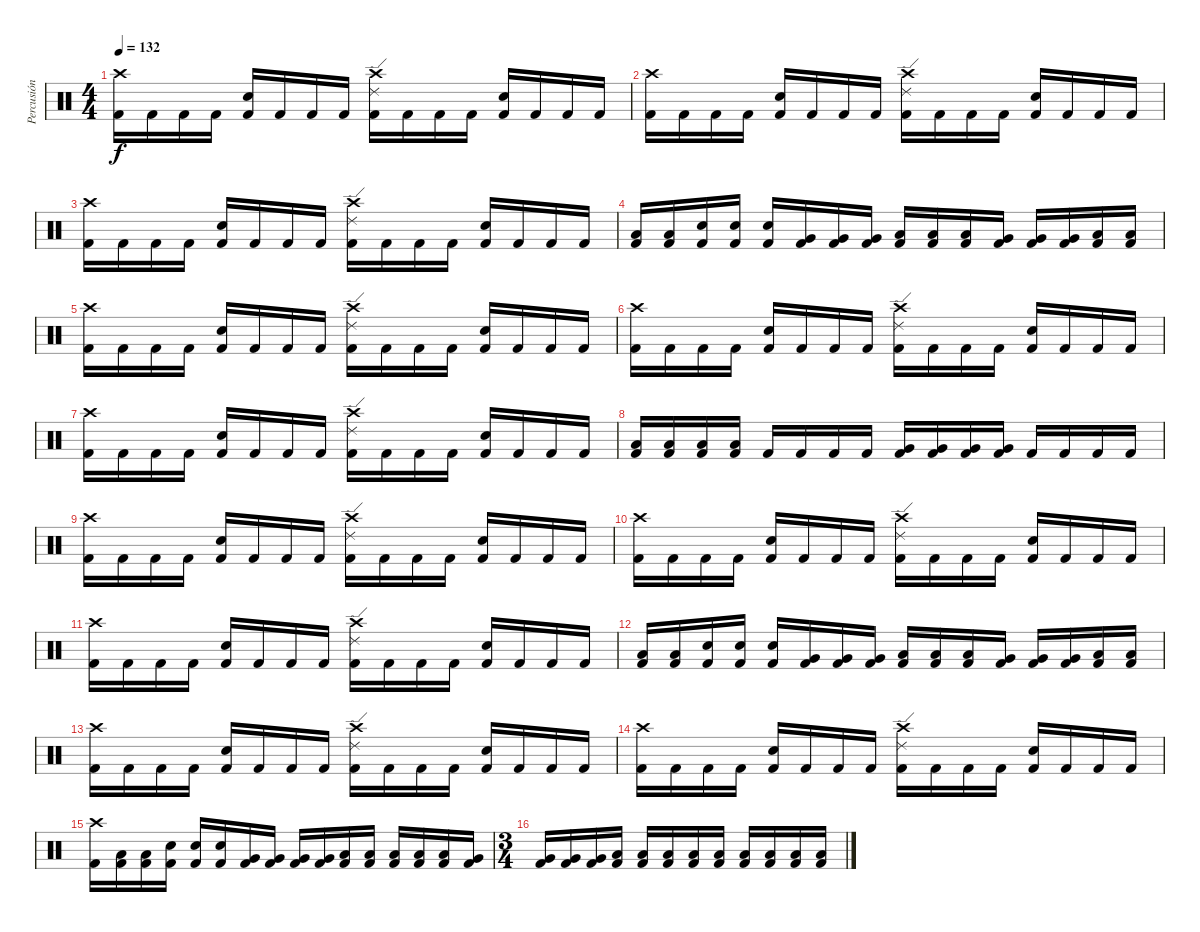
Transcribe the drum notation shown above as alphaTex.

\track ("Percusión" "Percusión") {instrument percussion}
\staff {score}
\articulation defaults
\ts (4 4)
\tempo 132
\clef neutral
\ks c
("Crash high (hit)" "Kick (hit) 2").16{dy f} "Kick (hit) 2".16 "Kick (hit) 2".16 "Kick (hit) 2".16 ("Snare (hit) 2" "Kick (hit) 2").16 "Kick (hit) 2".16 "Kick (hit) 2".16 "Kick (hit) 2".16 ("Ride (edge) 2" "Crash high (hit)" "Kick (hit) 2").16 "Kick (hit) 2".16 "Kick (hit) 2".16 "Kick (hit) 2".16 ("Snare (hit) 2" "Kick (hit) 2").16 "Kick (hit) 2".16 "Kick (hit) 2".16 "Kick (hit) 2".16 |
("Crash high (hit)" "Kick (hit) 2").16 "Kick (hit) 2".16 "Kick (hit) 2".16 "Kick (hit) 2".16 ("Snare (hit) 2" "Kick (hit) 2").16 "Kick (hit) 2".16 "Kick (hit) 2".16 "Kick (hit) 2".16 ("Ride (edge) 2" "Crash high (hit)" "Kick (hit) 2").16 "Kick (hit) 2".16 "Kick (hit) 2".16 "Kick (hit) 2".16 ("Snare (hit) 2" "Kick (hit) 2").16 "Kick (hit) 2".16 "Kick (hit) 2".16 "Kick (hit) 2".16 |
("Crash high (hit)" "Kick (hit) 2").16 "Kick (hit) 2".16 "Kick (hit) 2".16 "Kick (hit) 2".16 ("Snare (hit) 2" "Kick (hit) 2").16 "Kick (hit) 2".16 "Kick (hit) 2".16 "Kick (hit) 2".16 ("Ride (edge) 2" "Crash high (hit)" "Kick (hit) 2").16 "Kick (hit) 2".16 "Kick (hit) 2".16 "Kick (hit) 2".16 ("Snare (hit) 2" "Kick (hit) 2").16 "Kick (hit) 2".16 "Kick (hit) 2".16 "Kick (hit) 2".16 |
("Low Floor Tom (hit)" "Kick (hit) 2").16 ("Low Floor Tom (hit)" "Kick (hit) 2").16 ("Snare (hit) 2" "Kick (hit) 2").16 ("Snare (hit) 2" "Kick (hit) 2").16 ("Snare (hit) 2" "Kick (hit) 2").16 ("Very Low Tom (hit)" "Kick (hit) 2").16 ("Very Low Tom (hit)" "Kick (hit) 2").16 ("Very Low Tom (hit)" "Kick (hit) 2").16 ("Low Tom (hit)" "Kick (hit) 2").16 ("Low Tom (hit)" "Kick (hit) 2").16 ("Low Tom (hit)" "Kick (hit) 2").16 ("Very Low Tom (hit)" "Kick (hit) 2").16 ("Very Low Tom (hit)" "Kick (hit) 2").16 ("Very Low Tom (hit)" "Kick (hit) 2").16 ("Low Floor Tom (hit)" "Kick (hit) 2").16 ("Low Floor Tom (hit)" "Kick (hit) 2").16 |
("Crash high (hit)" "Kick (hit) 2").16 "Kick (hit) 2".16 "Kick (hit) 2".16 "Kick (hit) 2".16 ("Snare (hit) 2" "Kick (hit) 2").16 "Kick (hit) 2".16 "Kick (hit) 2".16 "Kick (hit) 2".16 ("Ride (edge) 2" "Crash high (hit)" "Kick (hit) 2").16 "Kick (hit) 2".16 "Kick (hit) 2".16 "Kick (hit) 2".16 ("Snare (hit) 2" "Kick (hit) 2").16 "Kick (hit) 2".16 "Kick (hit) 2".16 "Kick (hit) 2".16 |
("Crash high (hit)" "Kick (hit) 2").16 "Kick (hit) 2".16 "Kick (hit) 2".16 "Kick (hit) 2".16 ("Snare (hit) 2" "Kick (hit) 2").16 "Kick (hit) 2".16 "Kick (hit) 2".16 "Kick (hit) 2".16 ("Ride (edge) 2" "Crash high (hit)" "Kick (hit) 2").16 "Kick (hit) 2".16 "Kick (hit) 2".16 "Kick (hit) 2".16 ("Snare (hit) 2" "Kick (hit) 2").16 "Kick (hit) 2".16 "Kick (hit) 2".16 "Kick (hit) 2".16 |
("Crash high (hit)" "Kick (hit) 2").16 "Kick (hit) 2".16 "Kick (hit) 2".16 "Kick (hit) 2".16 ("Snare (hit) 2" "Kick (hit) 2").16 "Kick (hit) 2".16 "Kick (hit) 2".16 "Kick (hit) 2".16 ("Ride (edge) 2" "Crash high (hit)" "Kick (hit) 2").16 "Kick (hit) 2".16 "Kick (hit) 2".16 "Kick (hit) 2".16 ("Snare (hit) 2" "Kick (hit) 2").16 "Kick (hit) 2".16 "Kick (hit) 2".16 "Kick (hit) 2".16 |
("Low Tom (hit)" "Kick (hit) 2").16 ("Low Tom (hit)" "Kick (hit) 2").16 ("Low Tom (hit)" "Kick (hit) 2").16 ("Low Tom (hit)" "Kick (hit) 2").16 "Kick (hit) 2".16 "Kick (hit) 2".16 "Kick (hit) 2".16 "Kick (hit) 2".16 ("Very Low Tom (hit)" "Kick (hit) 2").16 ("Very Low Tom (hit)" "Kick (hit) 2").16 ("Very Low Tom (hit)" "Kick (hit) 2").16 ("Very Low Tom (hit)" "Kick (hit) 2").16 "Kick (hit) 2".16 "Kick (hit) 2".16 "Kick (hit) 2".16 "Kick (hit) 2".16 |
("Crash high (hit)" "Kick (hit) 2").16 "Kick (hit) 2".16 "Kick (hit) 2".16 "Kick (hit) 2".16 ("Snare (hit) 2" "Kick (hit) 2").16 "Kick (hit) 2".16 "Kick (hit) 2".16 "Kick (hit) 2".16 ("Ride (edge) 2" "Crash high (hit)" "Kick (hit) 2").16 "Kick (hit) 2".16 "Kick (hit) 2".16 "Kick (hit) 2".16 ("Snare (hit) 2" "Kick (hit) 2").16 "Kick (hit) 2".16 "Kick (hit) 2".16 "Kick (hit) 2".16 |
("Crash high (hit)" "Kick (hit) 2").16 "Kick (hit) 2".16 "Kick (hit) 2".16 "Kick (hit) 2".16 ("Snare (hit) 2" "Kick (hit) 2").16 "Kick (hit) 2".16 "Kick (hit) 2".16 "Kick (hit) 2".16 ("Ride (edge) 2" "Crash high (hit)" "Kick (hit) 2").16 "Kick (hit) 2".16 "Kick (hit) 2".16 "Kick (hit) 2".16 ("Snare (hit) 2" "Kick (hit) 2").16 "Kick (hit) 2".16 "Kick (hit) 2".16 "Kick (hit) 2".16 |
("Crash high (hit)" "Kick (hit) 2").16 "Kick (hit) 2".16 "Kick (hit) 2".16 "Kick (hit) 2".16 ("Snare (hit) 2" "Kick (hit) 2").16 "Kick (hit) 2".16 "Kick (hit) 2".16 "Kick (hit) 2".16 ("Ride (edge) 2" "Crash high (hit)" "Kick (hit) 2").16 "Kick (hit) 2".16 "Kick (hit) 2".16 "Kick (hit) 2".16 ("Snare (hit) 2" "Kick (hit) 2").16 "Kick (hit) 2".16 "Kick (hit) 2".16 "Kick (hit) 2".16 |
("Low Floor Tom (hit)" "Kick (hit) 2").16 ("Low Floor Tom (hit)" "Kick (hit) 2").16 ("Snare (hit) 2" "Kick (hit) 2").16 ("Snare (hit) 2" "Kick (hit) 2").16 ("Snare (hit) 2" "Kick (hit) 2").16 ("Very Low Tom (hit)" "Kick (hit) 2").16 ("Very Low Tom (hit)" "Kick (hit) 2").16 ("Very Low Tom (hit)" "Kick (hit) 2").16 ("Low Tom (hit)" "Kick (hit) 2").16 ("Low Tom (hit)" "Kick (hit) 2").16 ("Low Tom (hit)" "Kick (hit) 2").16 ("Very Low Tom (hit)" "Kick (hit) 2").16 ("Very Low Tom (hit)" "Kick (hit) 2").16 ("Very Low Tom (hit)" "Kick (hit) 2").16 ("Low Floor Tom (hit)" "Kick (hit) 2").16 ("Low Floor Tom (hit)" "Kick (hit) 2").16 |
("Crash high (hit)" "Kick (hit) 2").16 "Kick (hit) 2".16 "Kick (hit) 2".16 "Kick (hit) 2".16 ("Snare (hit) 2" "Kick (hit) 2").16 "Kick (hit) 2".16 "Kick (hit) 2".16 "Kick (hit) 2".16 ("Ride (edge) 2" "Crash high (hit)" "Kick (hit) 2").16 "Kick (hit) 2".16 "Kick (hit) 2".16 "Kick (hit) 2".16 ("Snare (hit) 2" "Kick (hit) 2").16 "Kick (hit) 2".16 "Kick (hit) 2".16 "Kick (hit) 2".16 |
("Crash high (hit)" "Kick (hit) 2").16 "Kick (hit) 2".16 "Kick (hit) 2".16 "Kick (hit) 2".16 ("Snare (hit) 2" "Kick (hit) 2").16 "Kick (hit) 2".16 "Kick (hit) 2".16 "Kick (hit) 2".16 ("Ride (edge) 2" "Crash high (hit)" "Kick (hit) 2").16 "Kick (hit) 2".16 "Kick (hit) 2".16 "Kick (hit) 2".16 ("Snare (hit) 2" "Kick (hit) 2").16 "Kick (hit) 2".16 "Kick (hit) 2".16 "Kick (hit) 2".16 |
("Crash high (hit)" "Kick (hit) 2").16 ("Low Floor Tom (hit)" "Kick (hit) 2").16 ("Low Floor Tom (hit)" "Kick (hit) 2").16 ("Snare (hit) 2" "Kick (hit) 2").16 ("Snare (hit) 2" "Kick (hit) 2").16 ("Snare (hit) 2" "Kick (hit) 2").16 ("Very Low Tom (hit)" "Kick (hit) 2").16 ("Very Low Tom (hit)" "Kick (hit) 2").16 ("Very Low Tom (hit)" "Kick (hit) 2").16 ("Very Low Tom (hit)" "Kick (hit) 2").16 ("Low Tom (hit)" "Kick (hit) 2").16 ("Low Tom (hit)" "Kick (hit) 2").16 ("Low Tom (hit)" "Kick (hit) 2").16 ("Low Tom (hit)" "Kick (hit) 2").16 ("Low Tom (hit)" "Kick (hit) 2").16 ("Very Low Tom (hit)" "Kick (hit) 2").16 |
\ts (3 4)
("Very Low Tom (hit)" "Kick (hit) 2").16 ("Very Low Tom (hit)" "Kick (hit) 2").16 ("Very Low Tom (hit)" "Kick (hit) 2").16 ("Low Floor Tom (hit)" "Kick (hit) 2").16 ("Low Floor Tom (hit)" "Kick (hit) 2").16 ("Low Floor Tom (hit)" "Kick (hit) 2").16 ("Low Floor Tom (hit)" "Kick (hit) 2").16 ("Low Floor Tom (hit)" "Kick (hit) 2").16 ("Low Floor Tom (hit)" "Kick (hit) 2").16 ("Low Floor Tom (hit)" "Kick (hit) 2").16 ("Low Floor Tom (hit)" "Kick (hit) 2").16 ("Low Floor Tom (hit)" "Kick (hit) 2").16
